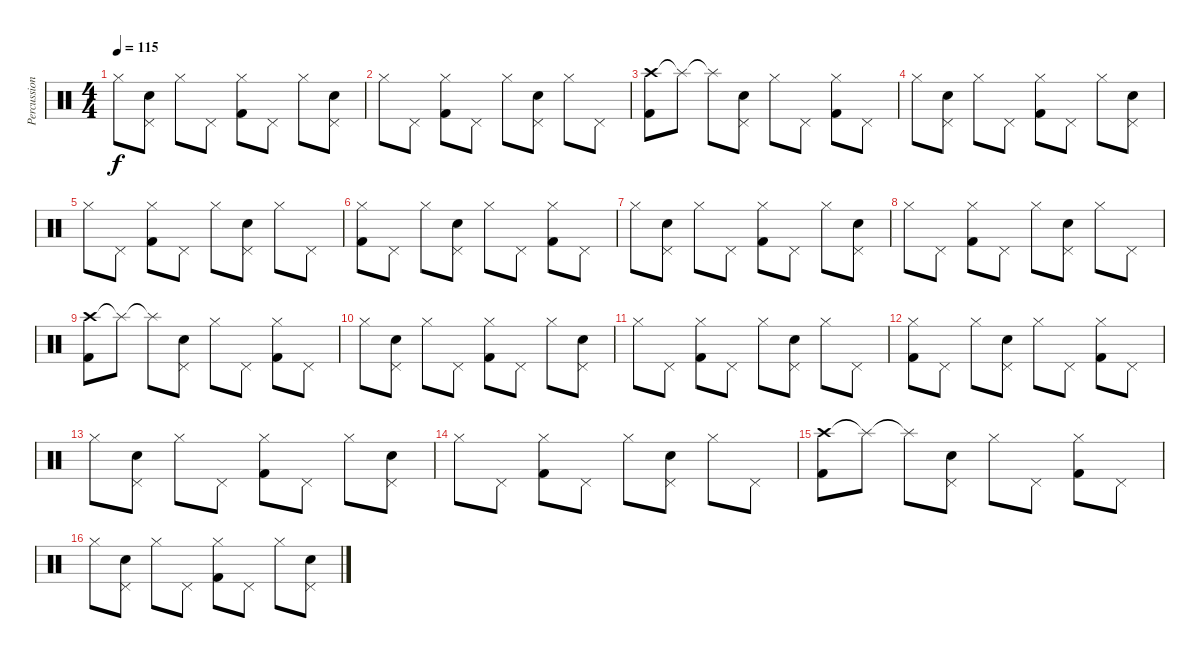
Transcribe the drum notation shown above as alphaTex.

\track ("Percussion" "Percussion") {instrument percussion}
\staff {score}
\articulation defaults
\ts (4 4)
\tempo 115
\clef neutral
\ks c "Hi-Hat (closed)".8{dy f}
("Pedal Hi-Hat (hit)" "Electric Snare (hit)").8 "Hi-Hat (closed)".8 "Pedal Hi-Hat (hit)".8 ("Hi-Hat (closed)" "Kick (hit) 2").8 "Pedal Hi-Hat (hit)".8 "Hi-Hat (closed)".8 ("Pedal Hi-Hat (hit)" "Electric Snare (hit)").8 |
"Hi-Hat (closed)".8 "Pedal Hi-Hat (hit)".8 ("Hi-Hat (closed)" "Kick (hit) 2").8 "Pedal Hi-Hat (hit)".8 "Hi-Hat (closed)".8 ("Pedal Hi-Hat (hit)" "Electric Snare (hit)").8 "Hi-Hat (closed)".8 "Pedal Hi-Hat (hit)".8 |
("Crash high (hit)" "Kick (hit) 2").8 "Splash (hit)"{t}.8 "Splash (hit)"{t}.8 ("Pedal Hi-Hat (hit)" "Electric Snare (hit)").8 "Hi-Hat (closed)".8 "Pedal Hi-Hat (hit)".8 ("Hi-Hat (closed)" "Kick (hit) 2").8 "Pedal Hi-Hat (hit)".8 |
"Hi-Hat (closed)".8 ("Pedal Hi-Hat (hit)" "Electric Snare (hit)").8 "Hi-Hat (closed)".8 "Pedal Hi-Hat (hit)".8 ("Hi-Hat (closed)" "Kick (hit) 2").8 "Pedal Hi-Hat (hit)".8 "Hi-Hat (closed)".8 ("Pedal Hi-Hat (hit)" "Electric Snare (hit)").8 |
"Hi-Hat (closed)".8 "Pedal Hi-Hat (hit)".8 ("Hi-Hat (closed)" "Kick (hit) 2").8 "Pedal Hi-Hat (hit)".8 "Hi-Hat (closed)".8 ("Pedal Hi-Hat (hit)" "Electric Snare (hit)").8 "Hi-Hat (closed)".8 "Pedal Hi-Hat (hit)".8 |
("Hi-Hat (closed)" "Kick (hit) 2").8 "Pedal Hi-Hat (hit)".8 "Hi-Hat (closed)".8 ("Pedal Hi-Hat (hit)" "Electric Snare (hit)").8 "Hi-Hat (closed)".8 "Pedal Hi-Hat (hit)".8 ("Hi-Hat (closed)" "Kick (hit) 2").8 "Pedal Hi-Hat (hit)".8 |
"Hi-Hat (closed)".8 ("Pedal Hi-Hat (hit)" "Electric Snare (hit)").8 "Hi-Hat (closed)".8 "Pedal Hi-Hat (hit)".8 ("Hi-Hat (closed)" "Kick (hit) 2").8 "Pedal Hi-Hat (hit)".8 "Hi-Hat (closed)".8 ("Pedal Hi-Hat (hit)" "Electric Snare (hit)").8 |
"Hi-Hat (closed)".8 "Pedal Hi-Hat (hit)".8 ("Hi-Hat (closed)" "Kick (hit) 2").8 "Pedal Hi-Hat (hit)".8 "Hi-Hat (closed)".8 ("Pedal Hi-Hat (hit)" "Electric Snare (hit)").8 "Hi-Hat (closed)".8 "Pedal Hi-Hat (hit)".8 |
("Crash high (hit)" "Kick (hit) 2").8 "Splash (hit)"{t}.8 "Splash (hit)"{t}.8 ("Pedal Hi-Hat (hit)" "Electric Snare (hit)").8 "Hi-Hat (closed)".8 "Pedal Hi-Hat (hit)".8 ("Hi-Hat (closed)" "Kick (hit) 2").8 "Pedal Hi-Hat (hit)".8 |
"Hi-Hat (closed)".8 ("Pedal Hi-Hat (hit)" "Electric Snare (hit)").8 "Hi-Hat (closed)".8 "Pedal Hi-Hat (hit)".8 ("Hi-Hat (closed)" "Kick (hit) 2").8 "Pedal Hi-Hat (hit)".8 "Hi-Hat (closed)".8 ("Pedal Hi-Hat (hit)" "Electric Snare (hit)").8 |
"Hi-Hat (closed)".8 "Pedal Hi-Hat (hit)".8 ("Hi-Hat (closed)" "Kick (hit) 2").8 "Pedal Hi-Hat (hit)".8 "Hi-Hat (closed)".8 ("Pedal Hi-Hat (hit)" "Electric Snare (hit)").8 "Hi-Hat (closed)".8 "Pedal Hi-Hat (hit)".8 |
("Hi-Hat (closed)" "Kick (hit) 2").8 "Pedal Hi-Hat (hit)".8 "Hi-Hat (closed)".8 ("Pedal Hi-Hat (hit)" "Electric Snare (hit)").8 "Hi-Hat (closed)".8 "Pedal Hi-Hat (hit)".8 ("Hi-Hat (closed)" "Kick (hit) 2").8 "Pedal Hi-Hat (hit)".8 |
"Hi-Hat (closed)".8 ("Pedal Hi-Hat (hit)" "Electric Snare (hit)").8 "Hi-Hat (closed)".8 "Pedal Hi-Hat (hit)".8 ("Hi-Hat (closed)" "Kick (hit) 2").8 "Pedal Hi-Hat (hit)".8 "Hi-Hat (closed)".8 ("Pedal Hi-Hat (hit)" "Electric Snare (hit)").8 |
"Hi-Hat (closed)".8 "Pedal Hi-Hat (hit)".8 ("Hi-Hat (closed)" "Kick (hit) 2").8 "Pedal Hi-Hat (hit)".8 "Hi-Hat (closed)".8 ("Pedal Hi-Hat (hit)" "Electric Snare (hit)").8 "Hi-Hat (closed)".8 "Pedal Hi-Hat (hit)".8 |
("Crash high (hit)" "Kick (hit) 2").8 "Splash (hit)"{t}.8 "Splash (hit)"{t}.8 ("Pedal Hi-Hat (hit)" "Electric Snare (hit)").8 "Hi-Hat (closed)".8 "Pedal Hi-Hat (hit)".8 ("Hi-Hat (closed)" "Kick (hit) 2").8 "Pedal Hi-Hat (hit)".8 |
"Hi-Hat (closed)".8 ("Pedal Hi-Hat (hit)" "Electric Snare (hit)").8 "Hi-Hat (closed)".8 "Pedal Hi-Hat (hit)".8 ("Hi-Hat (closed)" "Kick (hit) 2").8 "Pedal Hi-Hat (hit)".8 "Hi-Hat (closed)".8 ("Pedal Hi-Hat (hit)" "Electric Snare (hit)").8
